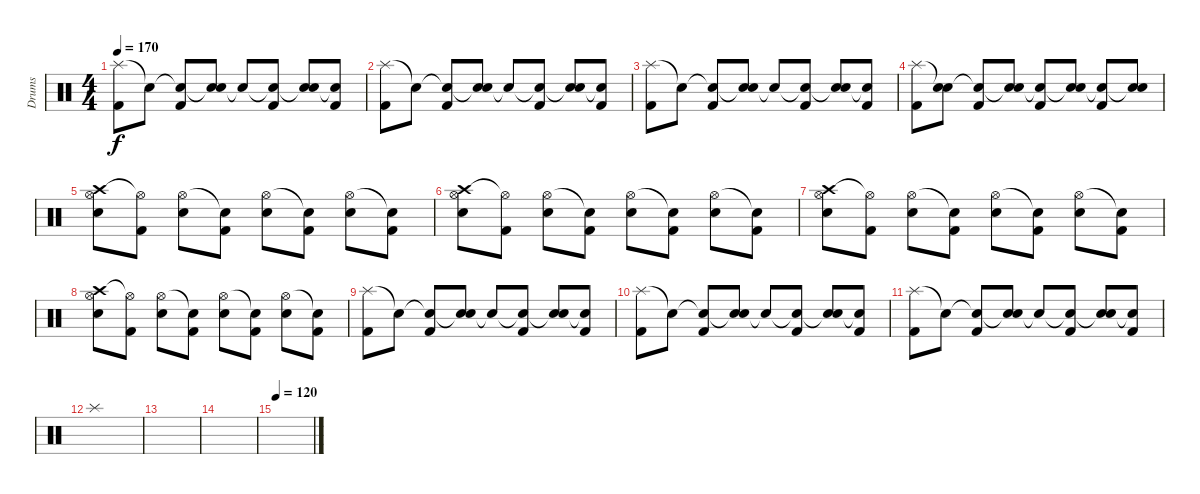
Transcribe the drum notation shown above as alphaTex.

\track ("Drums" "Drums") {instrument percussion}
\staff {score}
\articulation defaults
\ts (4 4)
\tempo 170
\clef neutral
\ks c
("Splash (hit)" "Kick (hit) 2").8{dy f} "Snare (hit)"{t}.8 ("Snare (hit)"{t} "Kick (hit) 2").8 ("Snare (hit)"{t} "Electric Snare (hit)").8 "Snare (hit)"{t}.8 ("Snare (hit)"{t} "Kick (hit) 2").8 ("Snare (hit)"{t} "Electric Snare (hit)").8 ("Snare (hit)"{t} "Kick (hit) 2").8 |
("Splash (hit)" "Kick (hit) 2").8 "Snare (hit)"{t}.8 ("Snare (hit)"{t} "Kick (hit) 2").8 ("Snare (hit)"{t} "Electric Snare (hit)").8 "Snare (hit)"{t}.8 ("Snare (hit)"{t} "Kick (hit) 2").8 ("Snare (hit)"{t} "Electric Snare (hit)").8 ("Snare (hit)"{t} "Kick (hit) 2").8 |
("Splash (hit)" "Kick (hit) 2").8 "Snare (hit)"{t}.8 ("Snare (hit)"{t} "Kick (hit) 2").8 ("Snare (hit)"{t} "Electric Snare (hit)").8 "Snare (hit)"{t}.8 ("Snare (hit)"{t} "Kick (hit) 2").8 ("Snare (hit)"{t} "Electric Snare (hit)").8 ("Snare (hit)"{t} "Kick (hit) 2").8 |
("Splash (hit)" "Kick (hit) 2").8 ("Snare (hit)"{t} "Electric Snare (hit)").8 ("Snare (hit)"{t} "Kick (hit) 2").8 ("Snare (hit)"{t} "Electric Snare (hit)").8 ("Snare (hit)"{t} "Kick (hit) 2").8 ("Snare (hit)"{t} "Electric Snare (hit)").8 ("Snare (hit)"{t} "Kick (hit) 2").8 ("Snare (hit)"{t} "Electric Snare (hit)").8 |
("Crash high (hit)" "Hi-Hat (open)" "Electric Snare (hit)").8 ("Hi-Hat (open)"{t} "Kick (hit) 2").8 ("Hi-Hat (open)" "Electric Snare (hit)").8 ("Snare (hit)"{t} "Kick (hit) 2").8 ("Hi-Hat (open)" "Electric Snare (hit)").8 ("Snare (hit)"{t} "Kick (hit) 2").8 ("Hi-Hat (open)" "Electric Snare (hit)").8 ("Snare (hit)"{t} "Kick (hit) 2").8 |
("Crash high (hit)" "Hi-Hat (open)" "Electric Snare (hit)").8 ("Hi-Hat (open)"{t} "Kick (hit) 2").8 ("Hi-Hat (open)" "Electric Snare (hit)").8 ("Snare (hit)"{t} "Kick (hit) 2").8 ("Hi-Hat (open)" "Electric Snare (hit)").8 ("Snare (hit)"{t} "Kick (hit) 2").8 ("Hi-Hat (open)" "Electric Snare (hit)").8 ("Snare (hit)"{t} "Kick (hit) 2").8 |
("Crash high (hit)" "Hi-Hat (open)" "Electric Snare (hit)").8 ("Hi-Hat (open)"{t} "Kick (hit) 2").8 ("Hi-Hat (open)" "Electric Snare (hit)").8 ("Snare (hit)"{t} "Kick (hit) 2").8 ("Hi-Hat (open)" "Electric Snare (hit)").8 ("Snare (hit)"{t} "Kick (hit) 2").8 ("Hi-Hat (open)" "Electric Snare (hit)").8 ("Snare (hit)"{t} "Kick (hit) 2").8 |
("Crash high (hit)" "Hi-Hat (open)" "Electric Snare (hit)").8 ("Hi-Hat (open)"{t} "Kick (hit) 2").8 ("Hi-Hat (open)" "Electric Snare (hit)").8 ("Snare (hit)"{t} "Kick (hit) 2").8 ("Hi-Hat (open)" "Electric Snare (hit)").8 ("Snare (hit)"{t} "Kick (hit) 2").8 ("Hi-Hat (open)" "Electric Snare (hit)").8 ("Snare (hit)"{t} "Kick (hit) 2").8 |
("Splash (hit)" "Kick (hit) 2").8 "Snare (hit)"{t}.8 ("Snare (hit)"{t} "Kick (hit) 2").8 ("Snare (hit)"{t} "Electric Snare (hit)").8 "Snare (hit)"{t}.8 ("Snare (hit)"{t} "Kick (hit) 2").8 ("Snare (hit)"{t} "Electric Snare (hit)").8 ("Snare (hit)"{t} "Kick (hit) 2").8 |
("Splash (hit)" "Kick (hit) 2").8 "Snare (hit)"{t}.8 ("Snare (hit)"{t} "Kick (hit) 2").8 ("Snare (hit)"{t} "Electric Snare (hit)").8 "Snare (hit)"{t}.8 ("Snare (hit)"{t} "Kick (hit) 2").8 ("Snare (hit)"{t} "Electric Snare (hit)").8 ("Snare (hit)"{t} "Kick (hit) 2").8 |
("Splash (hit)" "Kick (hit) 2").8 "Snare (hit)"{t}.8 ("Snare (hit)"{t} "Kick (hit) 2").8 ("Snare (hit)"{t} "Electric Snare (hit)").8 "Snare (hit)"{t}.8 ("Snare (hit)"{t} "Kick (hit) 2").8 ("Snare (hit)"{t} "Electric Snare (hit)").8 ("Snare (hit)"{t} "Kick (hit) 2").8 |
"Splash (hit)".1 |
|
|
\tempo 120
